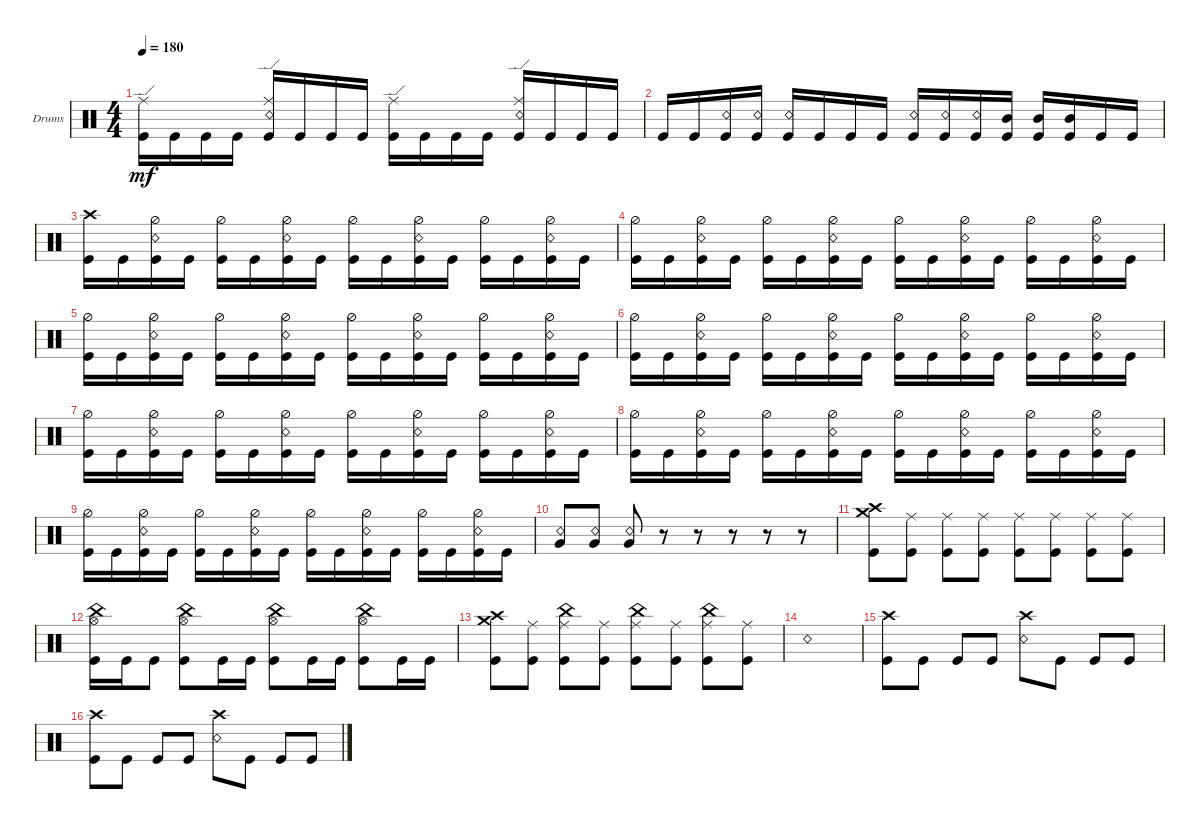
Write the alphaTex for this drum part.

\defaultSystemsLayout 4
\bracketExtendMode groupsimilarinstruments
\firstSystemTrackNameOrientation horizontal
\otherSystemsTrackNameOrientation horizontal
\track ("Drumkit" "Drums") {instrument percussion}
\staff {score}
\articulation defaults
\ts (4 4)
\tempo 180
\clef neutral
\ks c
("Kick (hit)" "Ride (edge)").16{dy mf} "Kick (hit)".16 "Kick (hit)".16 "Kick (hit)".16 ("Kick (hit)" "Snare (rim shot)" "Ride (edge)").16 "Kick (hit)".16 "Kick (hit)".16 "Kick (hit)".16 ("Kick (hit)" "Ride (edge)").16 "Kick (hit)".16 "Kick (hit)".16 "Kick (hit)".16 ("Kick (hit)" "Snare (rim shot)" "Ride (edge)").16 "Kick (hit)".16 "Kick (hit)".16 "Kick (hit)".16 |
"Kick (hit)".16 "Kick (hit)".16 ("Kick (hit)" "Snare (rim shot)").16 ("Kick (hit)" "Snare (rim shot)").16 ("Kick (hit)" "Snare (rim shot)").16 "Kick (hit)".16 "Kick (hit)".16 "Kick (hit)".16 ("Kick (hit)" "Snare (rim shot)").16 ("Kick (hit)" "Snare (rim shot)").16 ("Kick (hit)" "Snare (rim shot)").16 ("Kick (hit)" "Mid Tom (hit)").16 ("Kick (hit)" "Mid Tom (hit)").16 ("Kick (hit)" "Mid Tom (hit)").16 "Kick (hit)".16 "Kick (hit)".16 |
("Kick (hit)" "Crash high (hit)").16 "Kick (hit)".16 ("Kick (hit)" "Hi-Hat (half)" "Snare (rim shot)").16 "Kick (hit)".16 ("Kick (hit)" "Hi-Hat (half)").16 "Kick (hit)".16 ("Kick (hit)" "Hi-Hat (half)" "Snare (rim shot)").16 "Kick (hit)".16 ("Kick (hit)" "Hi-Hat (half)").16 "Kick (hit)".16 ("Kick (hit)" "Hi-Hat (half)" "Snare (rim shot)").16 "Kick (hit)".16 ("Kick (hit)" "Hi-Hat (half)").16 "Kick (hit)".16 ("Kick (hit)" "Hi-Hat (half)" "Snare (rim shot)").16 "Kick (hit)".16 |
("Kick (hit)" "Hi-Hat (half)").16 "Kick (hit)".16 ("Kick (hit)" "Hi-Hat (half)" "Snare (rim shot)").16 "Kick (hit)".16 ("Kick (hit)" "Hi-Hat (half)").16 "Kick (hit)".16 ("Kick (hit)" "Hi-Hat (half)" "Snare (rim shot)").16 "Kick (hit)".16 ("Kick (hit)" "Hi-Hat (half)").16 "Kick (hit)".16 ("Kick (hit)" "Hi-Hat (half)" "Snare (rim shot)").16 "Kick (hit)".16 ("Kick (hit)" "Hi-Hat (half)").16 "Kick (hit)".16 ("Kick (hit)" "Hi-Hat (half)" "Snare (rim shot)").16 "Kick (hit)".16 |
("Kick (hit)" "Hi-Hat (half)").16 "Kick (hit)".16 ("Kick (hit)" "Hi-Hat (half)" "Snare (rim shot)").16 "Kick (hit)".16 ("Kick (hit)" "Hi-Hat (half)").16 "Kick (hit)".16 ("Kick (hit)" "Hi-Hat (half)" "Snare (rim shot)").16 "Kick (hit)".16 ("Kick (hit)" "Hi-Hat (half)").16 "Kick (hit)".16 ("Kick (hit)" "Hi-Hat (half)" "Snare (rim shot)").16 "Kick (hit)".16 ("Kick (hit)" "Hi-Hat (half)").16 "Kick (hit)".16 ("Kick (hit)" "Hi-Hat (half)" "Snare (rim shot)").16 "Kick (hit)".16 |
("Kick (hit)" "Hi-Hat (half)").16 "Kick (hit)".16 ("Kick (hit)" "Hi-Hat (half)" "Snare (rim shot)").16 "Kick (hit)".16 ("Kick (hit)" "Hi-Hat (half)").16 "Kick (hit)".16 ("Kick (hit)" "Hi-Hat (half)" "Snare (rim shot)").16 "Kick (hit)".16 ("Kick (hit)" "Hi-Hat (half)").16 "Kick (hit)".16 ("Kick (hit)" "Hi-Hat (half)" "Snare (rim shot)").16 "Kick (hit)".16 ("Kick (hit)" "Hi-Hat (half)").16 "Kick (hit)".16 ("Kick (hit)" "Hi-Hat (half)" "Snare (rim shot)").16 "Kick (hit)".16 |
("Kick (hit)" "Hi-Hat (half)").16 "Kick (hit)".16 ("Kick (hit)" "Hi-Hat (half)" "Snare (rim shot)").16 "Kick (hit)".16 ("Kick (hit)" "Hi-Hat (half)").16 "Kick (hit)".16 ("Kick (hit)" "Hi-Hat (half)" "Snare (rim shot)").16 "Kick (hit)".16 ("Kick (hit)" "Hi-Hat (half)").16 "Kick (hit)".16 ("Kick (hit)" "Hi-Hat (half)" "Snare (rim shot)").16 "Kick (hit)".16 ("Kick (hit)" "Hi-Hat (half)").16 "Kick (hit)".16 ("Kick (hit)" "Hi-Hat (half)" "Snare (rim shot)").16 "Kick (hit)".16 |
("Kick (hit)" "Hi-Hat (half)").16 "Kick (hit)".16 ("Kick (hit)" "Hi-Hat (half)" "Snare (rim shot)").16 "Kick (hit)".16 ("Kick (hit)" "Hi-Hat (half)").16 "Kick (hit)".16 ("Kick (hit)" "Hi-Hat (half)" "Snare (rim shot)").16 "Kick (hit)".16 ("Kick (hit)" "Hi-Hat (half)").16 "Kick (hit)".16 ("Kick (hit)" "Hi-Hat (half)" "Snare (rim shot)").16 "Kick (hit)".16 ("Kick (hit)" "Hi-Hat (half)").16 "Kick (hit)".16 ("Kick (hit)" "Hi-Hat (half)" "Snare (rim shot)").16 "Kick (hit)".16 |
("Kick (hit)" "Hi-Hat (half)").16 "Kick (hit)".16 ("Kick (hit)" "Hi-Hat (half)" "Snare (rim shot)").16 "Kick (hit)".16 ("Kick (hit)" "Hi-Hat (half)").16 "Kick (hit)".16 ("Kick (hit)" "Hi-Hat (half)" "Snare (rim shot)").16 "Kick (hit)".16 ("Kick (hit)" "Hi-Hat (half)").16 "Kick (hit)".16 ("Kick (hit)" "Hi-Hat (half)" "Snare (rim shot)").16 "Kick (hit)".16 ("Kick (hit)" "Hi-Hat (half)").16 "Kick (hit)".16 ("Kick (hit)" "Hi-Hat (half)" "Snare (rim shot)").16 "Kick (hit)".16 |
("Snare (rim shot)" "Very Low Tom (hit)").8 ("Snare (rim shot)" "Very Low Tom (hit)").8 ("Snare (rim shot)" "Very Low Tom (hit)").8 r.8 r.8 r.8 r.8 r.8 |
("Kick (hit)" "Crash medium (hit)" "Crash high (hit)").8 ("Kick (hit)" "Ride (middle)").8 ("Kick (hit)" "Ride (middle)").8 ("Kick (hit)" "Ride (middle)").8 ("Kick (hit)" "Ride (middle)").8 ("Kick (hit)" "Ride (middle)").8 ("Kick (hit)" "Ride (middle)").8 ("Kick (hit)" "Ride (middle)").8 |
("Kick (hit)" "China (hit)" "Hi-Hat (open)").16 "Kick (hit)".16 "Kick (hit)".8 ("Kick (hit)" "China (hit)" "Hi-Hat (open)").8 "Kick (hit)".16 "Kick (hit)".16 ("Kick (hit)" "China (hit)" "Hi-Hat (open)").8 "Kick (hit)".16 "Kick (hit)".16 ("Kick (hit)" "China (hit)" "Hi-Hat (open)").8 "Kick (hit)".16 "Kick (hit)".16 |
("Kick (hit)" "Crash medium (hit)" "Crash high (hit)").8 ("Kick (hit)" "Ride (middle)").8 ("Kick (hit)" "Ride (middle)" "China (hit)").8 ("Kick (hit)" "Ride (middle)").8 ("Kick (hit)" "Ride (middle)" "China (hit)").8 ("Kick (hit)" "Ride (middle)").8 ("Kick (hit)" "Ride (middle)" "China (hit)").8 ("Kick (hit)" "Ride (middle)").8 |
"Snare (rim shot)".1 |
("Kick (hit)" "Crash high (hit)").8 "Kick (hit)".8 "Kick (hit)".8 "Kick (hit)".8 ("Crash high (hit)" "Snare (rim shot)").8 "Kick (hit)".8 "Kick (hit)".8 "Kick (hit)".8 |
("Kick (hit)" "Crash high (hit)").8 "Kick (hit)".8 "Kick (hit)".8 "Kick (hit)".8 ("Crash high (hit)" "Snare (rim shot)").8 "Kick (hit)".8 "Kick (hit)".8 "Kick (hit)".8
